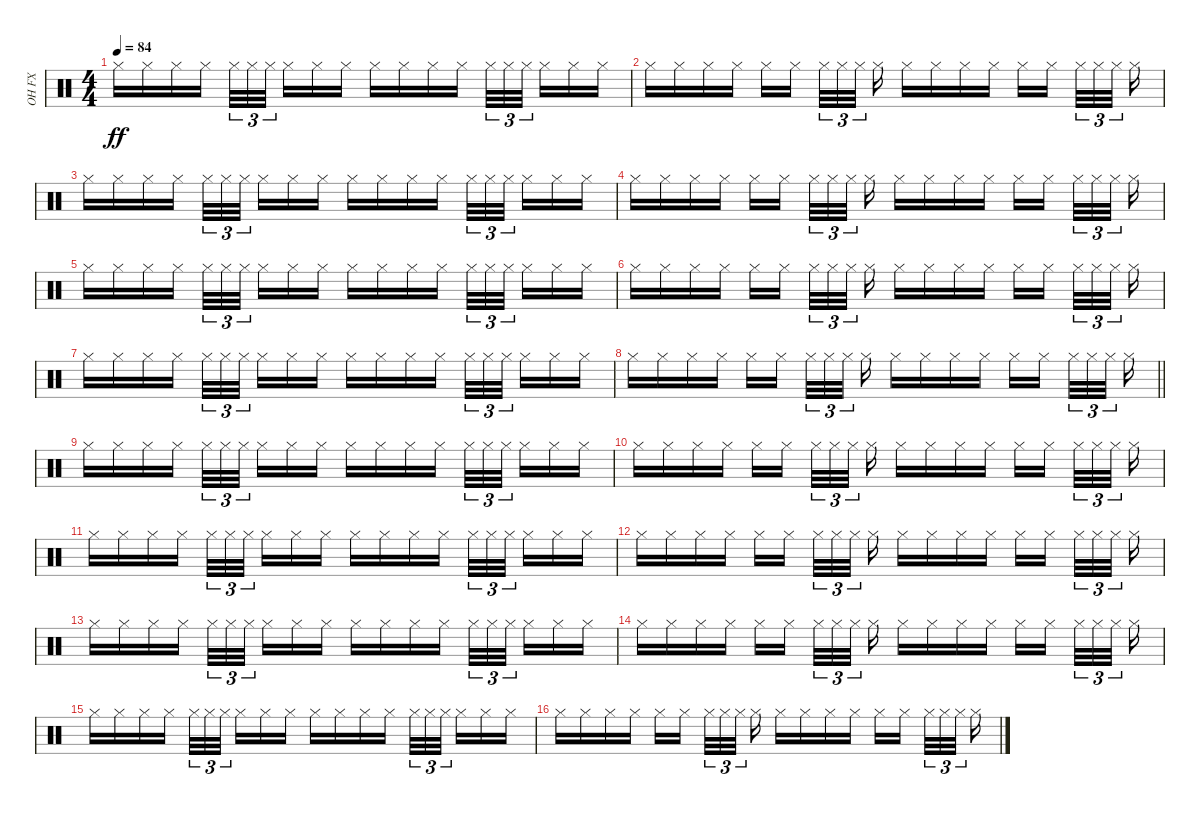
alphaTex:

\track ("OH FX" "OH FX") {instrument percussion}
\staff {score}
\articulation defaults
\ts (4 4)
\tempo 84
\clef neutral
\ks c "Hi-Hat (closed)".16{dy ff volume 7 balance 5} "Hi-Hat (closed)".16 "Hi-Hat (closed)".16 "Hi-Hat (closed)".16 "Hi-Hat (closed)".32{tu (3 2)} "Hi-Hat (closed)".32{tu (3 2)} "Hi-Hat (closed)".32{tu (3 2) beam splitsecondary} "Hi-Hat (closed)".16 "Hi-Hat (closed)".16 "Hi-Hat (closed)".16 "Hi-Hat (closed)".16 "Hi-Hat (closed)".16 "Hi-Hat (closed)".16 "Hi-Hat (closed)".16 "Hi-Hat (closed)".32{tu (3 2)} "Hi-Hat (closed)".32{tu (3 2)} "Hi-Hat (closed)".32{tu (3 2) beam splitsecondary} "Hi-Hat (closed)".16 "Hi-Hat (closed)".16 "Hi-Hat (closed)".16
|
"Hi-Hat (closed)".16 "Hi-Hat (closed)".16 "Hi-Hat (closed)".16 "Hi-Hat (closed)".16 "Hi-Hat (closed)".16 "Hi-Hat (closed)".16{beam splitsecondary} "Hi-Hat (closed)".32{tu (3 2)} "Hi-Hat (closed)".32{tu (3 2)} "Hi-Hat (closed)".32{tu (3 2) beam splitsecondary} "Hi-Hat (closed)".16 "Hi-Hat (closed)".16 "Hi-Hat (closed)".16 "Hi-Hat (closed)".16 "Hi-Hat (closed)".16 "Hi-Hat (closed)".16 "Hi-Hat (closed)".16{beam splitsecondary} "Hi-Hat (closed)".32{tu (3 2)} "Hi-Hat (closed)".32{tu (3 2)} "Hi-Hat (closed)".32{tu (3 2) beam splitsecondary} "Hi-Hat (closed)".16 |
"Hi-Hat (closed)".16 "Hi-Hat (closed)".16 "Hi-Hat (closed)".16 "Hi-Hat (closed)".16 "Hi-Hat (closed)".32{tu (3 2)} "Hi-Hat (closed)".32{tu (3 2)} "Hi-Hat (closed)".32{tu (3 2) beam splitsecondary} "Hi-Hat (closed)".16 "Hi-Hat (closed)".16 "Hi-Hat (closed)".16 "Hi-Hat (closed)".16 "Hi-Hat (closed)".16 "Hi-Hat (closed)".16 "Hi-Hat (closed)".16 "Hi-Hat (closed)".32{tu (3 2)} "Hi-Hat (closed)".32{tu (3 2)} "Hi-Hat (closed)".32{tu (3 2) beam splitsecondary} "Hi-Hat (closed)".16 "Hi-Hat (closed)".16 "Hi-Hat (closed)".16 |
"Hi-Hat (closed)".16 "Hi-Hat (closed)".16 "Hi-Hat (closed)".16 "Hi-Hat (closed)".16 "Hi-Hat (closed)".16 "Hi-Hat (closed)".16{beam splitsecondary} "Hi-Hat (closed)".32{tu (3 2)} "Hi-Hat (closed)".32{tu (3 2)} "Hi-Hat (closed)".32{tu (3 2) beam splitsecondary} "Hi-Hat (closed)".16 "Hi-Hat (closed)".16 "Hi-Hat (closed)".16 "Hi-Hat (closed)".16 "Hi-Hat (closed)".16 "Hi-Hat (closed)".16 "Hi-Hat (closed)".16{beam splitsecondary} "Hi-Hat (closed)".32{tu (3 2)} "Hi-Hat (closed)".32{tu (3 2)} "Hi-Hat (closed)".32{tu (3 2) beam splitsecondary} "Hi-Hat (closed)".16 |
"Hi-Hat (closed)".16{balance 5} "Hi-Hat (closed)".16 "Hi-Hat (closed)".16 "Hi-Hat (closed)".16 "Hi-Hat (closed)".32{tu (3 2)} "Hi-Hat (closed)".32{tu (3 2)} "Hi-Hat (closed)".32{tu (3 2) beam splitsecondary} "Hi-Hat (closed)".16 "Hi-Hat (closed)".16 "Hi-Hat (closed)".16 "Hi-Hat (closed)".16 "Hi-Hat (closed)".16 "Hi-Hat (closed)".16 "Hi-Hat (closed)".16 "Hi-Hat (closed)".32{tu (3 2)} "Hi-Hat (closed)".32{tu (3 2)} "Hi-Hat (closed)".32{tu (3 2) beam splitsecondary} "Hi-Hat (closed)".16 "Hi-Hat (closed)".16 "Hi-Hat (closed)".16 |
"Hi-Hat (closed)".16 "Hi-Hat (closed)".16 "Hi-Hat (closed)".16 "Hi-Hat (closed)".16 "Hi-Hat (closed)".16 "Hi-Hat (closed)".16{beam splitsecondary} "Hi-Hat (closed)".32{tu (3 2)} "Hi-Hat (closed)".32{tu (3 2)} "Hi-Hat (closed)".32{tu (3 2) beam splitsecondary} "Hi-Hat (closed)".16 "Hi-Hat (closed)".16 "Hi-Hat (closed)".16 "Hi-Hat (closed)".16 "Hi-Hat (closed)".16 "Hi-Hat (closed)".16 "Hi-Hat (closed)".16{beam splitsecondary} "Hi-Hat (closed)".32{tu (3 2)} "Hi-Hat (closed)".32{tu (3 2)} "Hi-Hat (closed)".32{tu (3 2) beam splitsecondary} "Hi-Hat (closed)".16 |
"Hi-Hat (closed)".16 "Hi-Hat (closed)".16 "Hi-Hat (closed)".16 "Hi-Hat (closed)".16 "Hi-Hat (closed)".32{tu (3 2)} "Hi-Hat (closed)".32{tu (3 2)} "Hi-Hat (closed)".32{tu (3 2) beam splitsecondary} "Hi-Hat (closed)".16 "Hi-Hat (closed)".16 "Hi-Hat (closed)".16 "Hi-Hat (closed)".16 "Hi-Hat (closed)".16 "Hi-Hat (closed)".16 "Hi-Hat (closed)".16 "Hi-Hat (closed)".32{tu (3 2)} "Hi-Hat (closed)".32{tu (3 2)} "Hi-Hat (closed)".32{tu (3 2) beam splitsecondary} "Hi-Hat (closed)".16 "Hi-Hat (closed)".16 "Hi-Hat (closed)".16 |
\barLineRight lightlight "Hi-Hat (closed)".16 "Hi-Hat (closed)".16 "Hi-Hat (closed)".16 "Hi-Hat (closed)".16 "Hi-Hat (closed)".16 "Hi-Hat (closed)".16{beam splitsecondary} "Hi-Hat (closed)".32{tu (3 2)} "Hi-Hat (closed)".32{tu (3 2)} "Hi-Hat (closed)".32{tu (3 2) beam splitsecondary} "Hi-Hat (closed)".16 "Hi-Hat (closed)".16 "Hi-Hat (closed)".16 "Hi-Hat (closed)".16 "Hi-Hat (closed)".16 "Hi-Hat (closed)".16 "Hi-Hat (closed)".16{beam splitsecondary} "Hi-Hat (closed)".32{tu (3 2)} "Hi-Hat (closed)".32{tu (3 2)} "Hi-Hat (closed)".32{tu (3 2) beam splitsecondary} "Hi-Hat (closed)".16
|
"Hi-Hat (closed)".16{balance 5} "Hi-Hat (closed)".16 "Hi-Hat (closed)".16 "Hi-Hat (closed)".16 "Hi-Hat (closed)".32{tu (3 2)} "Hi-Hat (closed)".32{tu (3 2)} "Hi-Hat (closed)".32{tu (3 2) beam splitsecondary} "Hi-Hat (closed)".16 "Hi-Hat (closed)".16 "Hi-Hat (closed)".16 "Hi-Hat (closed)".16 "Hi-Hat (closed)".16 "Hi-Hat (closed)".16 "Hi-Hat (closed)".16 "Hi-Hat (closed)".32{tu (3 2)} "Hi-Hat (closed)".32{tu (3 2)} "Hi-Hat (closed)".32{tu (3 2) beam splitsecondary} "Hi-Hat (closed)".16 "Hi-Hat (closed)".16 "Hi-Hat (closed)".16 |
"Hi-Hat (closed)".16 "Hi-Hat (closed)".16 "Hi-Hat (closed)".16 "Hi-Hat (closed)".16 "Hi-Hat (closed)".16 "Hi-Hat (closed)".16{beam splitsecondary} "Hi-Hat (closed)".32{tu (3 2)} "Hi-Hat (closed)".32{tu (3 2)} "Hi-Hat (closed)".32{tu (3 2) beam splitsecondary} "Hi-Hat (closed)".16 "Hi-Hat (closed)".16 "Hi-Hat (closed)".16 "Hi-Hat (closed)".16 "Hi-Hat (closed)".16 "Hi-Hat (closed)".16 "Hi-Hat (closed)".16{beam splitsecondary} "Hi-Hat (closed)".32{tu (3 2)} "Hi-Hat (closed)".32{tu (3 2)} "Hi-Hat (closed)".32{tu (3 2) beam splitsecondary} "Hi-Hat (closed)".16 |
"Hi-Hat (closed)".16 "Hi-Hat (closed)".16 "Hi-Hat (closed)".16 "Hi-Hat (closed)".16 "Hi-Hat (closed)".32{tu (3 2)} "Hi-Hat (closed)".32{tu (3 2)} "Hi-Hat (closed)".32{tu (3 2) beam splitsecondary} "Hi-Hat (closed)".16 "Hi-Hat (closed)".16 "Hi-Hat (closed)".16 "Hi-Hat (closed)".16 "Hi-Hat (closed)".16 "Hi-Hat (closed)".16 "Hi-Hat (closed)".16 "Hi-Hat (closed)".32{tu (3 2)} "Hi-Hat (closed)".32{tu (3 2)} "Hi-Hat (closed)".32{tu (3 2) beam splitsecondary} "Hi-Hat (closed)".16 "Hi-Hat (closed)".16 "Hi-Hat (closed)".16 |
"Hi-Hat (closed)".16 "Hi-Hat (closed)".16 "Hi-Hat (closed)".16 "Hi-Hat (closed)".16 "Hi-Hat (closed)".16 "Hi-Hat (closed)".16{beam splitsecondary} "Hi-Hat (closed)".32{tu (3 2)} "Hi-Hat (closed)".32{tu (3 2)} "Hi-Hat (closed)".32{tu (3 2) beam splitsecondary} "Hi-Hat (closed)".16 "Hi-Hat (closed)".16 "Hi-Hat (closed)".16 "Hi-Hat (closed)".16 "Hi-Hat (closed)".16 "Hi-Hat (closed)".16 "Hi-Hat (closed)".16{beam splitsecondary} "Hi-Hat (closed)".32{tu (3 2)} "Hi-Hat (closed)".32{tu (3 2)} "Hi-Hat (closed)".32{tu (3 2) beam splitsecondary} "Hi-Hat (closed)".16 |
"Hi-Hat (closed)".16{balance 5} "Hi-Hat (closed)".16 "Hi-Hat (closed)".16 "Hi-Hat (closed)".16 "Hi-Hat (closed)".32{tu (3 2)} "Hi-Hat (closed)".32{tu (3 2)} "Hi-Hat (closed)".32{tu (3 2) beam splitsecondary} "Hi-Hat (closed)".16 "Hi-Hat (closed)".16 "Hi-Hat (closed)".16 "Hi-Hat (closed)".16 "Hi-Hat (closed)".16 "Hi-Hat (closed)".16 "Hi-Hat (closed)".16 "Hi-Hat (closed)".32{tu (3 2)} "Hi-Hat (closed)".32{tu (3 2)} "Hi-Hat (closed)".32{tu (3 2) beam splitsecondary} "Hi-Hat (closed)".16 "Hi-Hat (closed)".16 "Hi-Hat (closed)".16 |
"Hi-Hat (closed)".16 "Hi-Hat (closed)".16 "Hi-Hat (closed)".16 "Hi-Hat (closed)".16 "Hi-Hat (closed)".16 "Hi-Hat (closed)".16{beam splitsecondary} "Hi-Hat (closed)".32{tu (3 2)} "Hi-Hat (closed)".32{tu (3 2)} "Hi-Hat (closed)".32{tu (3 2) beam splitsecondary} "Hi-Hat (closed)".16 "Hi-Hat (closed)".16 "Hi-Hat (closed)".16 "Hi-Hat (closed)".16 "Hi-Hat (closed)".16 "Hi-Hat (closed)".16 "Hi-Hat (closed)".16{beam splitsecondary} "Hi-Hat (closed)".32{tu (3 2)} "Hi-Hat (closed)".32{tu (3 2)} "Hi-Hat (closed)".32{tu (3 2) beam splitsecondary} "Hi-Hat (closed)".16 |
"Hi-Hat (closed)".16 "Hi-Hat (closed)".16 "Hi-Hat (closed)".16 "Hi-Hat (closed)".16 "Hi-Hat (closed)".32{tu (3 2)} "Hi-Hat (closed)".32{tu (3 2)} "Hi-Hat (closed)".32{tu (3 2) beam splitsecondary} "Hi-Hat (closed)".16 "Hi-Hat (closed)".16 "Hi-Hat (closed)".16 "Hi-Hat (closed)".16 "Hi-Hat (closed)".16 "Hi-Hat (closed)".16 "Hi-Hat (closed)".16 "Hi-Hat (closed)".32{tu (3 2)} "Hi-Hat (closed)".32{tu (3 2)} "Hi-Hat (closed)".32{tu (3 2) beam splitsecondary} "Hi-Hat (closed)".16 "Hi-Hat (closed)".16 "Hi-Hat (closed)".16 |
"Hi-Hat (closed)".16 "Hi-Hat (closed)".16 "Hi-Hat (closed)".16 "Hi-Hat (closed)".16 "Hi-Hat (closed)".16 "Hi-Hat (closed)".16{beam splitsecondary} "Hi-Hat (closed)".32{tu (3 2)} "Hi-Hat (closed)".32{tu (3 2)} "Hi-Hat (closed)".32{tu (3 2) beam splitsecondary} "Hi-Hat (closed)".16 "Hi-Hat (closed)".16 "Hi-Hat (closed)".16 "Hi-Hat (closed)".16 "Hi-Hat (closed)".16 "Hi-Hat (closed)".16 "Hi-Hat (closed)".16{beam splitsecondary} "Hi-Hat (closed)".32{tu (3 2)} "Hi-Hat (closed)".32{tu (3 2)} "Hi-Hat (closed)".32{tu (3 2) beam splitsecondary} "Hi-Hat (closed)".16
